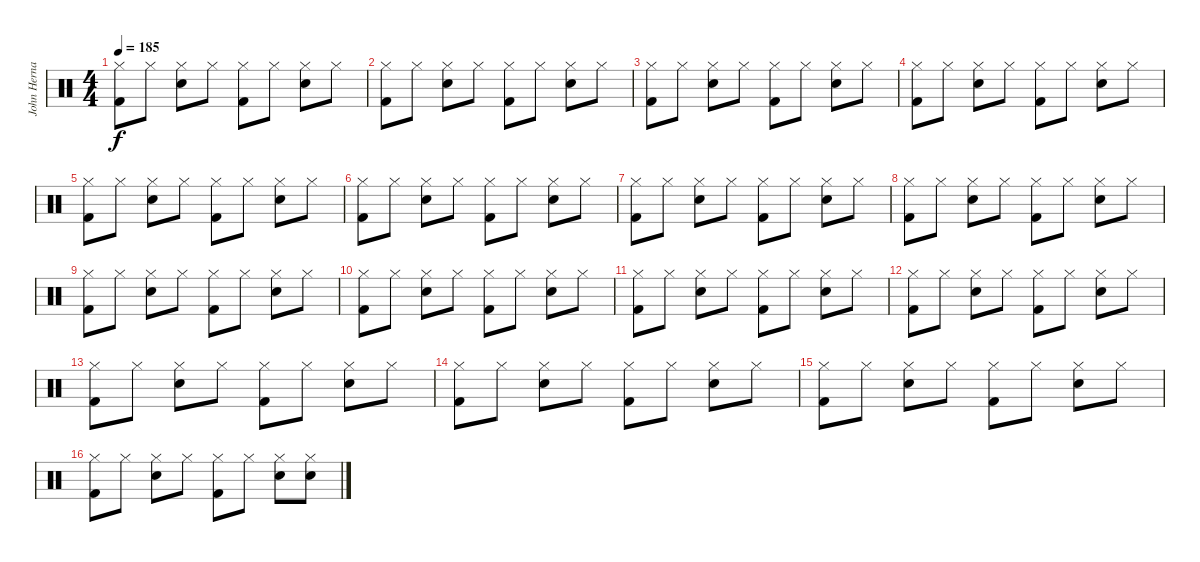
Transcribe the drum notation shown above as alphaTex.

\track ("John Hernandez" "John Herna") {instrument percussion}
\staff {score}
\articulation defaults
\ts (4 4)
\tempo 185
\clef neutral
\ks c
("Hi-Hat (closed)" "Kick (hit) 2").8{dy f} "Hi-Hat (closed)".8 ("Hi-Hat (closed)" "Snare (hit) 2").8 "Hi-Hat (closed)".8 ("Hi-Hat (closed)" "Kick (hit) 2").8 "Hi-Hat (closed)".8 ("Hi-Hat (closed)" "Snare (hit) 2").8 "Hi-Hat (closed)".8 |
("Hi-Hat (closed)" "Kick (hit) 2").8 "Hi-Hat (closed)".8 ("Hi-Hat (closed)" "Snare (hit) 2").8 "Hi-Hat (closed)".8 ("Hi-Hat (closed)" "Kick (hit) 2").8 "Hi-Hat (closed)".8 ("Hi-Hat (closed)" "Snare (hit) 2").8 "Hi-Hat (closed)".8 |
("Hi-Hat (closed)" "Kick (hit) 2").8 "Hi-Hat (closed)".8 ("Hi-Hat (closed)" "Snare (hit) 2").8 "Hi-Hat (closed)".8 ("Hi-Hat (closed)" "Kick (hit) 2").8 "Hi-Hat (closed)".8 ("Hi-Hat (closed)" "Snare (hit) 2").8 "Hi-Hat (closed)".8 |
("Hi-Hat (closed)" "Kick (hit) 2").8 "Hi-Hat (closed)".8 ("Hi-Hat (closed)" "Snare (hit) 2").8 "Hi-Hat (closed)".8 ("Hi-Hat (closed)" "Kick (hit) 2").8 "Hi-Hat (closed)".8 ("Hi-Hat (closed)" "Snare (hit) 2").8 "Hi-Hat (closed)".8 |
("Hi-Hat (closed)" "Kick (hit) 2").8 "Hi-Hat (closed)".8 ("Hi-Hat (closed)" "Snare (hit) 2").8 "Hi-Hat (closed)".8 ("Hi-Hat (closed)" "Kick (hit) 2").8 "Hi-Hat (closed)".8 ("Hi-Hat (closed)" "Snare (hit) 2").8 "Hi-Hat (closed)".8 |
("Hi-Hat (closed)" "Kick (hit) 2").8 "Hi-Hat (closed)".8 ("Hi-Hat (closed)" "Snare (hit) 2").8 "Hi-Hat (closed)".8 ("Hi-Hat (closed)" "Kick (hit) 2").8 "Hi-Hat (closed)".8 ("Hi-Hat (closed)" "Snare (hit) 2").8 "Hi-Hat (closed)".8 |
("Hi-Hat (closed)" "Kick (hit) 2").8 "Hi-Hat (closed)".8 ("Hi-Hat (closed)" "Snare (hit) 2").8 "Hi-Hat (closed)".8 ("Hi-Hat (closed)" "Kick (hit) 2").8 "Hi-Hat (closed)".8 ("Hi-Hat (closed)" "Snare (hit) 2").8 "Hi-Hat (closed)".8 |
("Hi-Hat (closed)" "Kick (hit) 2").8 "Hi-Hat (closed)".8 ("Hi-Hat (closed)" "Snare (hit) 2").8 "Hi-Hat (closed)".8 ("Hi-Hat (closed)" "Kick (hit) 2").8 "Hi-Hat (closed)".8 ("Hi-Hat (closed)" "Snare (hit) 2").8 "Hi-Hat (closed)".8 |
("Hi-Hat (closed)" "Kick (hit) 2").8 "Hi-Hat (closed)".8 ("Hi-Hat (closed)" "Snare (hit) 2").8 "Hi-Hat (closed)".8 ("Hi-Hat (closed)" "Kick (hit) 2").8 "Hi-Hat (closed)".8 ("Hi-Hat (closed)" "Snare (hit) 2").8 "Hi-Hat (closed)".8 |
("Hi-Hat (closed)" "Kick (hit) 2").8 "Hi-Hat (closed)".8 ("Hi-Hat (closed)" "Snare (hit) 2").8 "Hi-Hat (closed)".8 ("Hi-Hat (closed)" "Kick (hit) 2").8 "Hi-Hat (closed)".8 ("Hi-Hat (closed)" "Snare (hit) 2").8 "Hi-Hat (closed)".8 |
("Hi-Hat (closed)" "Kick (hit) 2").8 "Hi-Hat (closed)".8 ("Hi-Hat (closed)" "Snare (hit) 2").8 "Hi-Hat (closed)".8 ("Hi-Hat (closed)" "Kick (hit) 2").8 "Hi-Hat (closed)".8 ("Hi-Hat (closed)" "Snare (hit) 2").8 "Hi-Hat (closed)".8 |
("Hi-Hat (closed)" "Kick (hit) 2").8 "Hi-Hat (closed)".8 ("Hi-Hat (closed)" "Snare (hit) 2").8 "Hi-Hat (closed)".8 ("Hi-Hat (closed)" "Kick (hit) 2").8 "Hi-Hat (closed)".8 ("Hi-Hat (closed)" "Snare (hit) 2").8 "Hi-Hat (closed)".8 |
("Hi-Hat (closed)" "Kick (hit) 2").8 "Hi-Hat (closed)".8 ("Hi-Hat (closed)" "Snare (hit) 2").8 "Hi-Hat (closed)".8 ("Hi-Hat (closed)" "Kick (hit) 2").8 "Hi-Hat (closed)".8 ("Hi-Hat (closed)" "Snare (hit) 2").8 "Hi-Hat (closed)".8 |
("Hi-Hat (closed)" "Kick (hit) 2").8 "Hi-Hat (closed)".8 ("Hi-Hat (closed)" "Snare (hit) 2").8 "Hi-Hat (closed)".8 ("Hi-Hat (closed)" "Kick (hit) 2").8 "Hi-Hat (closed)".8 ("Hi-Hat (closed)" "Snare (hit) 2").8 "Hi-Hat (closed)".8 |
("Hi-Hat (closed)" "Kick (hit) 2").8 "Hi-Hat (closed)".8 ("Hi-Hat (closed)" "Snare (hit) 2").8 "Hi-Hat (closed)".8 ("Hi-Hat (closed)" "Kick (hit) 2").8 "Hi-Hat (closed)".8 ("Hi-Hat (closed)" "Snare (hit) 2").8 "Hi-Hat (closed)".8 |
("Hi-Hat (closed)" "Kick (hit) 2").8 "Hi-Hat (closed)".8 ("Hi-Hat (closed)" "Snare (hit) 2").8 "Hi-Hat (closed)".8 ("Hi-Hat (closed)" "Kick (hit) 2").8 "Hi-Hat (closed)".8 ("Hi-Hat (closed)" "Snare (hit) 2").8 ("Hi-Hat (closed)" "Snare (hit) 2").8
